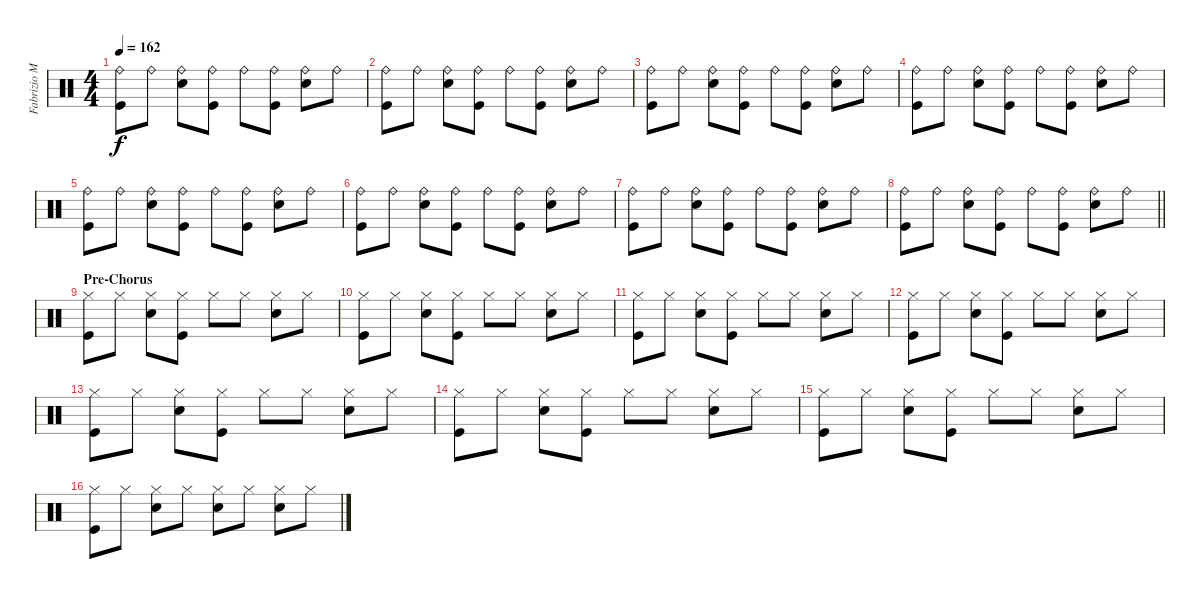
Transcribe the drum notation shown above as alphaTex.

\track ("Fabrizio Moretti" "Fabrizio M") {instrument percussion}
\staff {score}
\articulation defaults
\ts (4 4)
\tempo 162
\clef neutral
\ks c
("Ride (bell)" "Kick (hit)").8{dy f} "Ride (bell)".8 ("Ride (bell)" "Snare (hit) 2").8 ("Ride (bell)" "Kick (hit)").8 "Ride (bell)".8 ("Ride (bell)" "Kick (hit)").8 ("Ride (bell)" "Snare (hit) 2").8 "Ride (bell)".8 |
("Ride (bell)" "Kick (hit)").8 "Ride (bell)".8 ("Ride (bell)" "Snare (hit) 2").8 ("Ride (bell)" "Kick (hit)").8 "Ride (bell)".8 ("Ride (bell)" "Kick (hit)").8 ("Ride (bell)" "Snare (hit) 2").8 "Ride (bell)".8 |
("Ride (bell)" "Kick (hit)").8 "Ride (bell)".8 ("Ride (bell)" "Snare (hit) 2").8 ("Ride (bell)" "Kick (hit)").8 "Ride (bell)".8 ("Ride (bell)" "Kick (hit)").8 ("Ride (bell)" "Snare (hit) 2").8 "Ride (bell)".8 |
("Ride (bell)" "Kick (hit)").8 "Ride (bell)".8 ("Ride (bell)" "Snare (hit) 2").8 ("Ride (bell)" "Kick (hit)").8 "Ride (bell)".8 ("Ride (bell)" "Kick (hit)").8 ("Ride (bell)" "Snare (hit) 2").8 "Ride (bell)".8 |
("Ride (bell)" "Kick (hit)").8 "Ride (bell)".8 ("Ride (bell)" "Snare (hit) 2").8 ("Ride (bell)" "Kick (hit)").8 "Ride (bell)".8 ("Ride (bell)" "Kick (hit)").8 ("Ride (bell)" "Snare (hit) 2").8 "Ride (bell)".8 |
("Ride (bell)" "Kick (hit)").8 "Ride (bell)".8 ("Ride (bell)" "Snare (hit) 2").8 ("Ride (bell)" "Kick (hit)").8 "Ride (bell)".8 ("Ride (bell)" "Kick (hit)").8 ("Ride (bell)" "Snare (hit) 2").8 "Ride (bell)".8 |
("Ride (bell)" "Kick (hit)").8 "Ride (bell)".8 ("Ride (bell)" "Snare (hit) 2").8 ("Ride (bell)" "Kick (hit)").8 "Ride (bell)".8 ("Ride (bell)" "Kick (hit)").8 ("Ride (bell)" "Snare (hit) 2").8 "Ride (bell)".8 |
\barLineRight lightlight
("Ride (bell)" "Kick (hit)").8 "Ride (bell)".8 ("Ride (bell)" "Snare (hit) 2").8 ("Ride (bell)" "Kick (hit)").8 "Ride (bell)".8 ("Ride (bell)" "Kick (hit)").8 ("Ride (bell)" "Snare (hit) 2").8 "Ride (bell)".8 |
\section ("" "Pre-Chorus")
("Hi-Hat (closed)" "Kick (hit)").8 "Hi-Hat (closed)".8 ("Hi-Hat (closed)" "Snare (hit) 2").8 ("Hi-Hat (closed)" "Kick (hit)").8 "Hi-Hat (closed)".8 "Hi-Hat (closed)".8 ("Hi-Hat (closed)" "Snare (hit) 2").8 "Hi-Hat (closed)".8 |
("Hi-Hat (closed)" "Kick (hit)").8 "Hi-Hat (closed)".8 ("Hi-Hat (closed)" "Snare (hit) 2").8 ("Hi-Hat (closed)" "Kick (hit)").8 "Hi-Hat (closed)".8 "Hi-Hat (closed)".8 ("Hi-Hat (closed)" "Snare (hit) 2").8 "Hi-Hat (closed)".8 |
("Hi-Hat (closed)" "Kick (hit)").8 "Hi-Hat (closed)".8 ("Hi-Hat (closed)" "Snare (hit) 2").8 ("Hi-Hat (closed)" "Kick (hit)").8 "Hi-Hat (closed)".8 "Hi-Hat (closed)".8 ("Hi-Hat (closed)" "Snare (hit) 2").8 "Hi-Hat (closed)".8 |
("Hi-Hat (closed)" "Kick (hit)").8 "Hi-Hat (closed)".8 ("Hi-Hat (closed)" "Snare (hit) 2").8 ("Hi-Hat (closed)" "Kick (hit)").8 "Hi-Hat (closed)".8 "Hi-Hat (closed)".8 ("Hi-Hat (closed)" "Snare (hit) 2").8 "Hi-Hat (closed)".8 |
("Hi-Hat (closed)" "Kick (hit)").8 "Hi-Hat (closed)".8 ("Hi-Hat (closed)" "Snare (hit) 2").8 ("Hi-Hat (closed)" "Kick (hit)").8 "Hi-Hat (closed)".8 "Hi-Hat (closed)".8 ("Hi-Hat (closed)" "Snare (hit) 2").8 "Hi-Hat (closed)".8 |
("Hi-Hat (closed)" "Kick (hit)").8 "Hi-Hat (closed)".8 ("Hi-Hat (closed)" "Snare (hit) 2").8 ("Hi-Hat (closed)" "Kick (hit)").8 "Hi-Hat (closed)".8 "Hi-Hat (closed)".8 ("Hi-Hat (closed)" "Snare (hit) 2").8 "Hi-Hat (closed)".8 |
("Hi-Hat (closed)" "Kick (hit)").8 "Hi-Hat (closed)".8 ("Hi-Hat (closed)" "Snare (hit) 2").8 ("Hi-Hat (closed)" "Kick (hit)").8 "Hi-Hat (closed)".8 "Hi-Hat (closed)".8 ("Hi-Hat (closed)" "Snare (hit) 2").8 "Hi-Hat (closed)".8 |
("Hi-Hat (closed)" "Kick (hit)").8 "Hi-Hat (closed)".8 ("Hi-Hat (closed)" "Snare (hit) 2").8 "Hi-Hat (closed)".8 ("Hi-Hat (closed)" "Snare (hit) 2").8 "Hi-Hat (closed)".8 ("Hi-Hat (closed)" "Snare (hit) 2").8 "Hi-Hat (closed)".8
